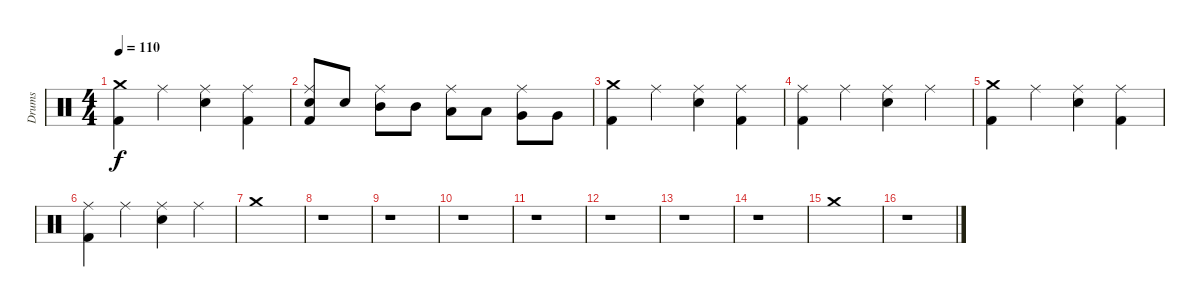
\track ("Drums" "Drums") {instrument percussion}
\staff {score}
\articulation defaults
\ts (4 4)
\tempo 110
\clef neutral
\ks c
("Crash medium (hit)" "Kick (hit) 2").4{dy f} "Ride (middle)".4 ("Ride (middle)" "Electric Snare (hit)").4 ("Ride (middle)" "Kick (hit) 2").4 |
("Ride (middle)" "Electric Snare (hit)" "Kick (hit) 2").8 "Electric Snare (hit)".8 ("Ride (middle)" "Mid Tom (hit)").8 "Mid Tom (hit)".8 ("Ride (middle)" "Low Tom (hit)").8 "Low Tom (hit)".8 ("Ride (middle)" "Very Low Tom (hit)").8 "Very Low Tom (hit)".8 |
("Crash medium (hit)" "Kick (hit) 2").4 "Ride (middle)".4 ("Ride (middle)" "Electric Snare (hit)").4 ("Ride (middle)" "Kick (hit) 2").4 |
("Ride (middle)" "Kick (hit) 2").4 "Ride (middle)".4 ("Ride (middle)" "Electric Snare (hit)").4 "Ride (middle)".4 |
("Crash medium (hit)" "Kick (hit) 2").4 "Ride (middle)".4 ("Ride (middle)" "Electric Snare (hit)").4 ("Ride (middle)" "Kick (hit) 2").4 |
("Ride (middle)" "Kick (hit) 2").4 "Ride (middle)".4 ("Ride (middle)" "Electric Snare (hit)").4 "Ride (middle)".4 |
"Crash medium (hit)".1 |
r.1 |
r.1 |
r.1 |
r.1 |
r.1 |
r.1 |
r.1 |
"Crash medium (hit)".1 |
r.1
